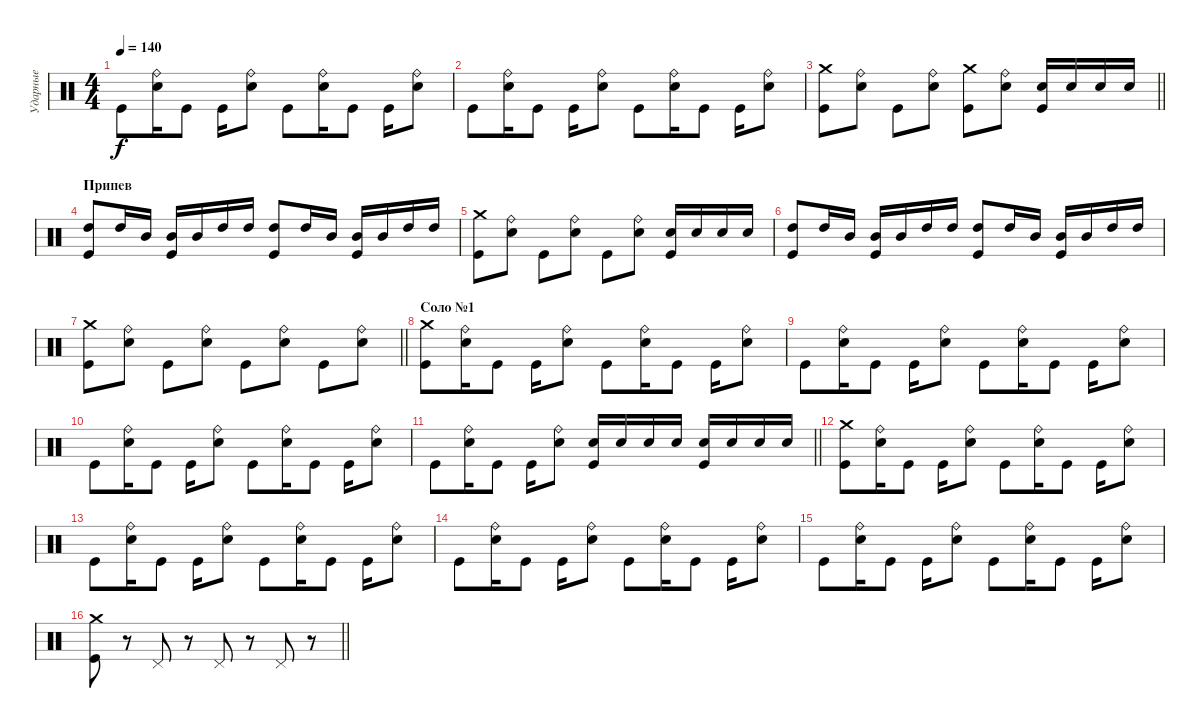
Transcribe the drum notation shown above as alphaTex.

\track ("Ударные" "Ударные") {instrument percussion}
\staff {score}
\articulation defaults
\ts (4 4)
\tempo 140
\clef neutral
\ks c "Kick (hit)".8{dy f}
("Ride (bell)" "Electric Snare (hit)").16 "Kick (hit)".8 "Kick (hit)".16 ("Ride (bell)" "Electric Snare (hit)").8 "Kick (hit)".8 ("Ride (bell)" "Electric Snare (hit)").16 "Kick (hit)".8 "Kick (hit)".16 ("Ride (bell)" "Electric Snare (hit)").8 |
"Kick (hit)".8 ("Ride (bell)" "Electric Snare (hit)").16 "Kick (hit)".8 "Kick (hit)".16 ("Ride (bell)" "Electric Snare (hit)").8 "Kick (hit)".8 ("Ride (bell)" "Electric Snare (hit)").16 "Kick (hit)".8 "Kick (hit)".16 ("Ride (bell)" "Electric Snare (hit)").8 |
\barLineRight lightlight
("Crash medium (hit)" "Kick (hit)").8 ("Ride (bell)" "Electric Snare (hit)").8 "Kick (hit)".8 ("Ride (bell)" "Electric Snare (hit)").8 ("Crash medium (hit)" "Kick (hit)").8 ("Ride (bell)" "Electric Snare (hit)").8 ("Electric Snare (hit)" "Kick (hit)").16 "Electric Snare (hit)".16 "Electric Snare (hit)".16 "Electric Snare (hit)".16 |
\section ("" "Припев")
("High Tom (hit)" "Kick (hit)").8 "High Tom (hit)".16 "Mid Tom (hit)".16 ("Mid Tom (hit)" "Kick (hit)").16 "Mid Tom (hit)".16 "High Tom (hit)".16 "High Tom (hit)".16 ("High Tom (hit)" "Kick (hit)").8 "High Tom (hit)".16 "Mid Tom (hit)".16 ("Mid Tom (hit)" "Kick (hit)").16 "Mid Tom (hit)".16 "High Tom (hit)".16 "High Tom (hit)".16 |
("Crash medium (hit)" "Kick (hit)").8 ("Ride (bell)" "Electric Snare (hit)").8 "Kick (hit)".8 ("Ride (bell)" "Electric Snare (hit)").8 "Kick (hit)".8 ("Ride (bell)" "Electric Snare (hit)").8 ("Electric Snare (hit)" "Kick (hit)").16 "Electric Snare (hit)".16 "Electric Snare (hit)".16 "Electric Snare (hit)".16 |
("High Tom (hit)" "Kick (hit)").8 "High Tom (hit)".16 "Mid Tom (hit)".16 ("Mid Tom (hit)" "Kick (hit)").16 "Mid Tom (hit)".16 "High Tom (hit)".16 "High Tom (hit)".16 ("High Tom (hit)" "Kick (hit)").8 "High Tom (hit)".16 "Mid Tom (hit)".16 ("Mid Tom (hit)" "Kick (hit)").16 "Mid Tom (hit)".16 "High Tom (hit)".16 "High Tom (hit)".16 |
\barLineRight lightlight
("Crash medium (hit)" "Kick (hit)").8 ("Ride (bell)" "Electric Snare (hit)").8 "Kick (hit)".8 ("Ride (bell)" "Electric Snare (hit)").8 "Kick (hit)".8 ("Ride (bell)" "Electric Snare (hit)").8 "Kick (hit)".8 ("Ride (bell)" "Electric Snare (hit)").8 |
\section ("" "Соло №1")
("Crash medium (hit)" "Kick (hit)").8 ("Ride (bell)" "Electric Snare (hit)").16 "Kick (hit)".8 "Kick (hit)".16 ("Ride (bell)" "Electric Snare (hit)").8 "Kick (hit)".8 ("Ride (bell)" "Electric Snare (hit)").16 "Kick (hit)".8 "Kick (hit)".16 ("Ride (bell)" "Electric Snare (hit)").8 |
"Kick (hit)".8 ("Ride (bell)" "Electric Snare (hit)").16 "Kick (hit)".8 "Kick (hit)".16 ("Ride (bell)" "Electric Snare (hit)").8 "Kick (hit)".8 ("Ride (bell)" "Electric Snare (hit)").16 "Kick (hit)".8 "Kick (hit)".16 ("Ride (bell)" "Electric Snare (hit)").8 |
"Kick (hit)".8 ("Ride (bell)" "Electric Snare (hit)").16 "Kick (hit)".8 "Kick (hit)".16 ("Ride (bell)" "Electric Snare (hit)").8 "Kick (hit)".8 ("Ride (bell)" "Electric Snare (hit)").16 "Kick (hit)".8 "Kick (hit)".16 ("Ride (bell)" "Electric Snare (hit)").8 |
\barLineRight lightlight "Kick (hit)".8
("Ride (bell)" "Electric Snare (hit)").16 "Kick (hit)".8 "Kick (hit)".16 ("Ride (bell)" "Electric Snare (hit)").8 ("Electric Snare (hit)" "Kick (hit)").16 "Electric Snare (hit)".16 "Electric Snare (hit)".16 "Electric Snare (hit)".16 ("Electric Snare (hit)" "Kick (hit)").16 "Electric Snare (hit)".16 "Electric Snare (hit)".16 "Electric Snare (hit)".16 |
("Crash medium (hit)" "Kick (hit)").8 ("Ride (bell)" "Electric Snare (hit)").16 "Kick (hit)".8 "Kick (hit)".16 ("Ride (bell)" "Electric Snare (hit)").8 "Kick (hit)".8 ("Ride (bell)" "Electric Snare (hit)").16 "Kick (hit)".8 "Kick (hit)".16 ("Ride (bell)" "Electric Snare (hit)").8 |
"Kick (hit)".8 ("Ride (bell)" "Electric Snare (hit)").16 "Kick (hit)".8 "Kick (hit)".16 ("Ride (bell)" "Electric Snare (hit)").8 "Kick (hit)".8 ("Ride (bell)" "Electric Snare (hit)").16 "Kick (hit)".8 "Kick (hit)".16 ("Ride (bell)" "Electric Snare (hit)").8 |
"Kick (hit)".8 ("Ride (bell)" "Electric Snare (hit)").16 "Kick (hit)".8 "Kick (hit)".16 ("Ride (bell)" "Electric Snare (hit)").8 "Kick (hit)".8 ("Ride (bell)" "Electric Snare (hit)").16 "Kick (hit)".8 "Kick (hit)".16 ("Ride (bell)" "Electric Snare (hit)").8 |
"Kick (hit)".8 ("Ride (bell)" "Electric Snare (hit)").16 "Kick (hit)".8 "Kick (hit)".16 ("Ride (bell)" "Electric Snare (hit)").8 "Kick (hit)".8 ("Ride (bell)" "Electric Snare (hit)").16 "Kick (hit)".8 "Kick (hit)".16 ("Ride (bell)" "Electric Snare (hit)").8 |
\barLineRight lightlight
("Crash medium (hit)" "Kick (hit)").8 r.8 "Pedal Hi-Hat (hit)".8 r.8 "Pedal Hi-Hat (hit)".8 r.8 "Pedal Hi-Hat (hit)".8 r.8
